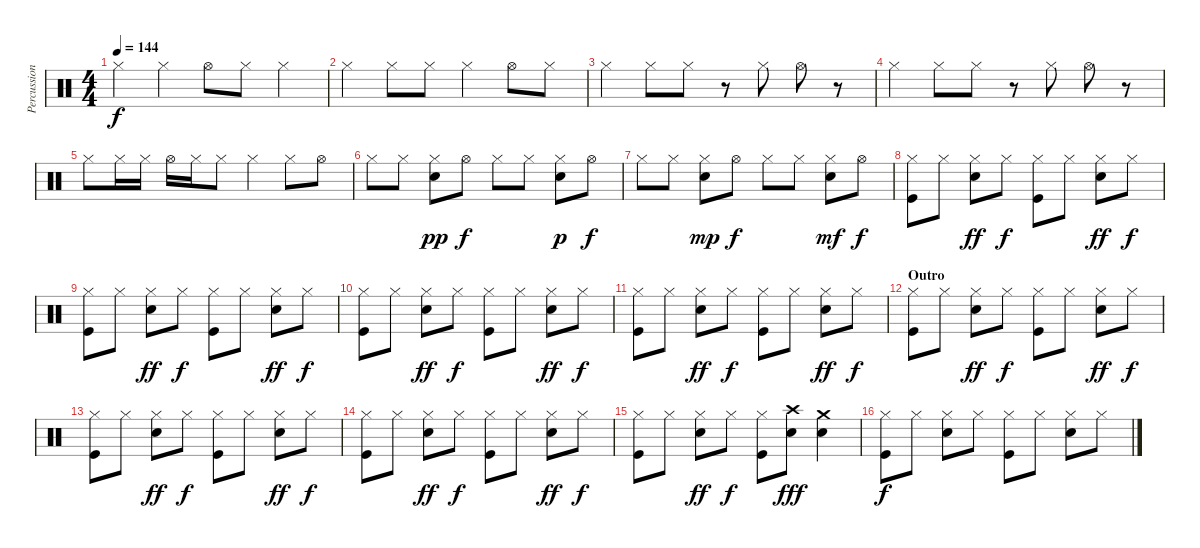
\track ("Percussions" "Percussion") {instrument percussion}
\staff {score}
\articulation defaults
\ts (4 4)
\tempo 144
\clef neutral
\ks c "Hi-Hat (closed)".4{dy f} "Hi-Hat (closed)".4 "Hi-Hat (open)".8 "Hi-Hat (closed)".8 "Hi-Hat (closed)".4
|
"Hi-Hat (closed)".4 "Hi-Hat (closed)".8 "Hi-Hat (closed)".8 "Hi-Hat (closed)".4 "Hi-Hat (open)".8 "Hi-Hat (closed)".8 |
"Hi-Hat (closed)".4 "Hi-Hat (closed)".8 "Hi-Hat (closed)".8 r.8 "Hi-Hat (closed)".8 "Hi-Hat (open)".8 r.8 |
"Hi-Hat (closed)".4 "Hi-Hat (closed)".8 "Hi-Hat (closed)".8 r.8 "Hi-Hat (closed)".8 "Hi-Hat (open)".8 r.8 |
"Hi-Hat (closed)".8 "Hi-Hat (closed)".16 "Hi-Hat (closed)".16 "Hi-Hat (open)".16 "Hi-Hat (closed)".16 "Hi-Hat (closed)".8 "Hi-Hat (closed)".4 "Hi-Hat (closed)".8 "Hi-Hat (open)".8 |
"Hi-Hat (closed)".8 "Hi-Hat (closed)".8 ("Hi-Hat (closed)" "Snare (hit) 2").8{dy pp} "Hi-Hat (open)".8{dy f} "Hi-Hat (closed)".8 "Hi-Hat (closed)".8 ("Hi-Hat (closed)" "Snare (hit) 2").8{dy p} "Hi-Hat (open)".8{dy f} |
"Hi-Hat (closed)".8 "Hi-Hat (closed)".8 ("Hi-Hat (closed)" "Snare (hit) 2").8{dy mp} "Hi-Hat (open)".8{dy f} "Hi-Hat (closed)".8 "Hi-Hat (closed)".8 ("Hi-Hat (closed)" "Snare (hit) 2").8{dy mf} "Hi-Hat (open)".8{dy f} |
("Hi-Hat (closed)" "Kick (hit)").8 "Hi-Hat (closed)".8 ("Hi-Hat (closed)" "Snare (hit) 2").8{dy ff} "Hi-Hat (closed)".8{dy f} ("Hi-Hat (closed)" "Kick (hit)").8 "Hi-Hat (closed)".8 ("Hi-Hat (closed)" "Snare (hit) 2").8{dy ff} "Hi-Hat (closed)".8{dy f} |
("Hi-Hat (closed)" "Kick (hit)").8 "Hi-Hat (closed)".8 ("Hi-Hat (closed)" "Snare (hit) 2").8{dy ff} "Hi-Hat (closed)".8{dy f} ("Hi-Hat (closed)" "Kick (hit)").8 "Hi-Hat (closed)".8 ("Hi-Hat (closed)" "Snare (hit) 2").8{dy ff} "Hi-Hat (closed)".8{dy f} |
("Hi-Hat (closed)" "Kick (hit)").8 "Hi-Hat (closed)".8 ("Hi-Hat (closed)" "Snare (hit) 2").8{dy ff} "Hi-Hat (closed)".8{dy f} ("Hi-Hat (closed)" "Kick (hit)").8 "Hi-Hat (closed)".8 ("Hi-Hat (closed)" "Snare (hit) 2").8{dy ff} "Hi-Hat (closed)".8{dy f} |
("Hi-Hat (closed)" "Kick (hit)").8 "Hi-Hat (closed)".8 ("Hi-Hat (closed)" "Snare (hit) 2").8{dy ff} "Hi-Hat (closed)".8{dy f} ("Hi-Hat (closed)" "Kick (hit)").8 "Hi-Hat (closed)".8 ("Hi-Hat (closed)" "Snare (hit) 2").8{dy ff} "Hi-Hat (closed)".8{dy f} |
\section ("" "Outro")
("Hi-Hat (closed)" "Kick (hit)").8 "Hi-Hat (closed)".8 ("Hi-Hat (closed)" "Snare (hit) 2").8{dy ff} "Hi-Hat (closed)".8{dy f} ("Hi-Hat (closed)" "Kick (hit)").8 "Hi-Hat (closed)".8 ("Hi-Hat (closed)" "Snare (hit) 2").8{dy ff} "Hi-Hat (closed)".8{dy f} |
("Hi-Hat (closed)" "Kick (hit)").8 "Hi-Hat (closed)".8 ("Hi-Hat (closed)" "Snare (hit) 2").8{dy ff} "Hi-Hat (closed)".8{dy f} ("Hi-Hat (closed)" "Kick (hit)").8 "Hi-Hat (closed)".8 ("Hi-Hat (closed)" "Snare (hit) 2").8{dy ff} "Hi-Hat (closed)".8{dy f} |
("Hi-Hat (closed)" "Kick (hit)").8 "Hi-Hat (closed)".8 ("Hi-Hat (closed)" "Snare (hit) 2").8{dy ff} "Hi-Hat (closed)".8{dy f} ("Hi-Hat (closed)" "Kick (hit)").8 "Hi-Hat (closed)".8 ("Hi-Hat (closed)" "Snare (hit) 2").8{dy ff} "Hi-Hat (closed)".8{dy f} |
("Hi-Hat (closed)" "Kick (hit)").8 "Hi-Hat (closed)".8 ("Hi-Hat (closed)" "Snare (hit) 2").8{dy ff} "Hi-Hat (closed)".8{dy f} ("Hi-Hat (closed)" "Kick (hit)").8 ("Crash high (hit)" "Snare (hit) 2").8{dy fff} ("Crash medium (hit)" "Snare (hit) 2").4 |
("Hi-Hat (closed)" "Kick (hit)").8{dy f} "Hi-Hat (closed)".8 ("Hi-Hat (closed)" "Snare (hit) 2").8 "Hi-Hat (closed)".8 ("Hi-Hat (closed)" "Kick (hit)").8 "Hi-Hat (closed)".8 ("Hi-Hat (closed)" "Snare (hit) 2").8 "Hi-Hat (closed)".8
